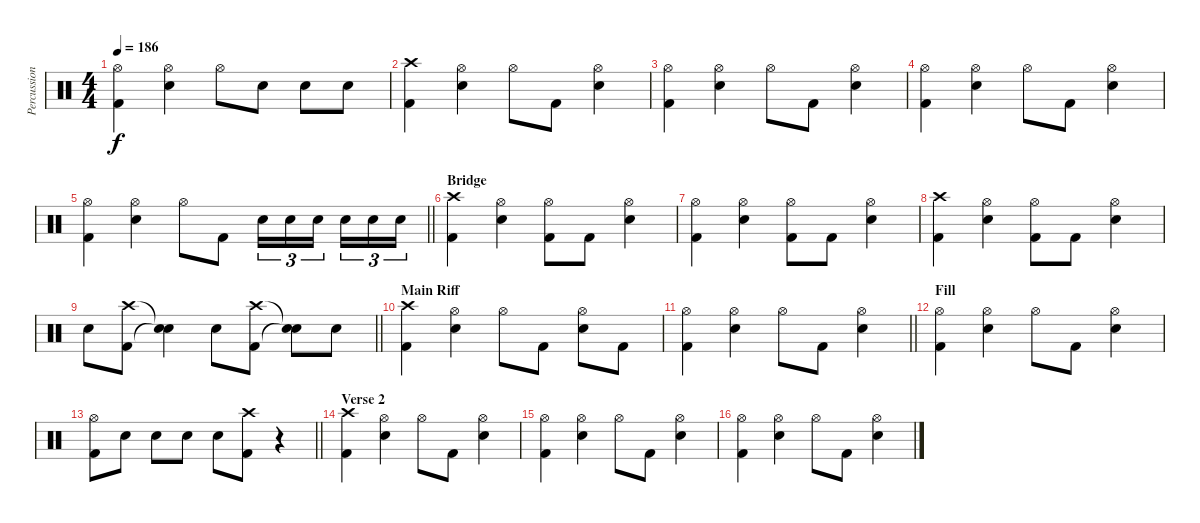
\track ("Percussion" "Percussion") {instrument percussion}
\staff {score}
\articulation defaults
\ts (4 4)
\tempo 186
\clef neutral
\ks c
("Hi-Hat (open)" "Kick (hit) 2").4{dy f} ("Hi-Hat (open)" "Snare (hit) 2").4 "Hi-Hat (open)".8 "Snare (hit) 2".8 "Snare (hit) 2".8 "Snare (hit) 2".8 |
("Crash high (hit)" "Kick (hit) 2").4 ("Hi-Hat (open)" "Snare (hit) 2").4 "Hi-Hat (open)".8 "Kick (hit) 2".8 ("Hi-Hat (open)" "Snare (hit) 2").4 |
("Hi-Hat (open)" "Kick (hit) 2").4 ("Hi-Hat (open)" "Snare (hit) 2").4 "Hi-Hat (open)".8 "Kick (hit) 2".8 ("Hi-Hat (open)" "Snare (hit) 2").4 |
("Hi-Hat (open)" "Kick (hit) 2").4 ("Hi-Hat (open)" "Snare (hit) 2").4 "Hi-Hat (open)".8 "Kick (hit) 2".8 ("Hi-Hat (open)" "Snare (hit) 2").4 |
\barLineRight lightlight
("Hi-Hat (open)" "Kick (hit) 2").4 ("Hi-Hat (open)" "Snare (hit) 2").4 "Hi-Hat (open)".8 "Kick (hit) 2".8 "Snare (hit) 2".16{tu (3 2)} "Snare (hit) 2".16{tu (3 2)} "Snare (hit) 2".16{tu (3 2)} "Snare (hit) 2".16{tu (3 2)} "Snare (hit) 2".16{tu (3 2)} "Snare (hit) 2".16{tu (3 2)} |
\section ("" "Bridge")
("Crash high (hit)" "Kick (hit) 2").4 ("Hi-Hat (open)" "Snare (hit) 2").4 ("Hi-Hat (open)" "Kick (hit) 2").8 "Kick (hit) 2".8 ("Hi-Hat (open)" "Snare (hit) 2").4 |
("Hi-Hat (open)" "Kick (hit) 2").4 ("Hi-Hat (open)" "Snare (hit) 2").4 ("Hi-Hat (open)" "Kick (hit) 2").8 "Kick (hit) 2".8 ("Hi-Hat (open)" "Snare (hit) 2").4 |
("Crash high (hit)" "Kick (hit) 2").4 ("Hi-Hat (open)" "Snare (hit) 2").4 ("Hi-Hat (open)" "Kick (hit) 2").8 "Kick (hit) 2".8 ("Hi-Hat (open)" "Snare (hit) 2").4 |
\barLineRight lightlight "Snare (hit) 2".8
("Crash high (hit)" "Kick (hit) 2").8 ("Snare (hit)"{t} "Snare (hit)"{t}).4 "Snare (hit) 2".8 ("Crash high (hit)" "Kick (hit) 2").8 ("Snare (hit)"{t} "Snare (hit)"{t}).8 "Snare (hit) 2".8 |
\section ("" "Main Riff")
("Crash high (hit)" "Kick (hit) 2").4 ("Hi-Hat (open)" "Snare (hit) 2").4 "Hi-Hat (open)".8 "Kick (hit) 2".8 ("Hi-Hat (open)" "Snare (hit) 2").8 "Kick (hit) 2".8 |
\barLineRight lightlight
("Hi-Hat (open)" "Kick (hit) 2").4 ("Hi-Hat (open)" "Snare (hit) 2").4 "Hi-Hat (open)".8 "Kick (hit) 2".8 ("Hi-Hat (open)" "Snare (hit) 2").4 |
\section ("" "Fill")
("Hi-Hat (open)" "Kick (hit) 2").4 ("Hi-Hat (open)" "Snare (hit) 2").4 "Hi-Hat (open)".8 "Kick (hit) 2".8 ("Hi-Hat (open)" "Snare (hit) 2").4 |
\barLineRight lightlight
("Hi-Hat (open)" "Kick (hit) 2").8 "Snare (hit) 2".8 "Snare (hit) 2".8 "Snare (hit) 2".8 "Snare (hit) 2".8 ("Crash high (hit)" "Kick (hit) 2").8 r.4 |
\section ("" "Verse 2")
("Crash high (hit)" "Kick (hit) 2").4 ("Hi-Hat (open)" "Snare (hit) 2").4 "Hi-Hat (open)".8 "Kick (hit) 2".8 ("Hi-Hat (open)" "Snare (hit) 2").4 |
("Hi-Hat (open)" "Kick (hit) 2").4 ("Hi-Hat (open)" "Snare (hit) 2").4 "Hi-Hat (open)".8 "Kick (hit) 2".8 ("Hi-Hat (open)" "Snare (hit) 2").4 |
("Hi-Hat (open)" "Kick (hit) 2").4 ("Hi-Hat (open)" "Snare (hit) 2").4 "Hi-Hat (open)".8 "Kick (hit) 2".8 ("Hi-Hat (open)" "Snare (hit) 2").4
